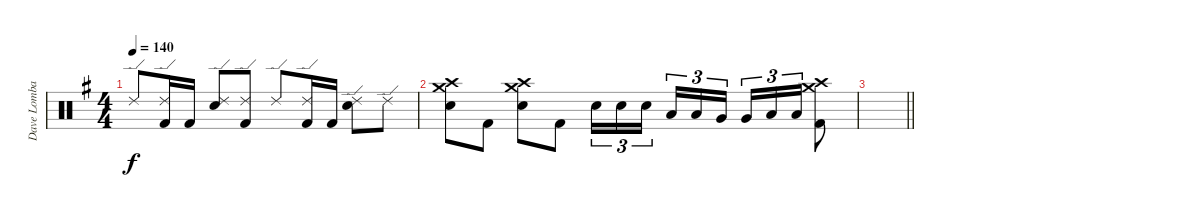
\track ("Dave Lombardo" "Dave Lomba") {instrument percussion}
\staff {score}
\articulation defaults
\ts (4 4)
\tempo 140
\clef neutral
\ks g "Ride (edge) 2".8{dy f}
("Ride (edge) 2" "Kick (hit) 2").16 "Kick (hit) 2".16 ("Ride (edge) 2" "Electric Snare (hit)").8 ("Ride (edge) 2" "Kick (hit) 2").8 "Ride (edge) 2".8 ("Ride (edge) 2" "Kick (hit) 2").16 "Kick (hit) 2".16 ("Ride (edge) 2" "Electric Snare (hit)").8 "Ride (edge) 2".8 |
("Crash high (hit)" "Crash medium (hit)" "Electric Snare (hit)").8 "Kick (hit) 2".8 ("Crash high (hit)" "Crash medium (hit)" "Electric Snare (hit)").8 "Kick (hit) 2".8 "Electric Snare (hit)".16{tu (3 2)} "Electric Snare (hit)".16{tu (3 2)} "Electric Snare (hit)".16{tu (3 2) beam splitsecondary} "Low Tom (hit)".16{tu (3 2)} "Low Tom (hit)".16{tu (3 2)} "Very Low Tom (hit)".16{tu (3 2)} "Very Low Tom (hit)".16{tu (3 2)} "Low Floor Tom (hit)".16{tu (3 2)} "Low Floor Tom (hit)".16{tu (3 2)} ("Crash high (hit)" "Crash medium (hit)" "Kick (hit) 2").8 |
\barLineRight lightlight
